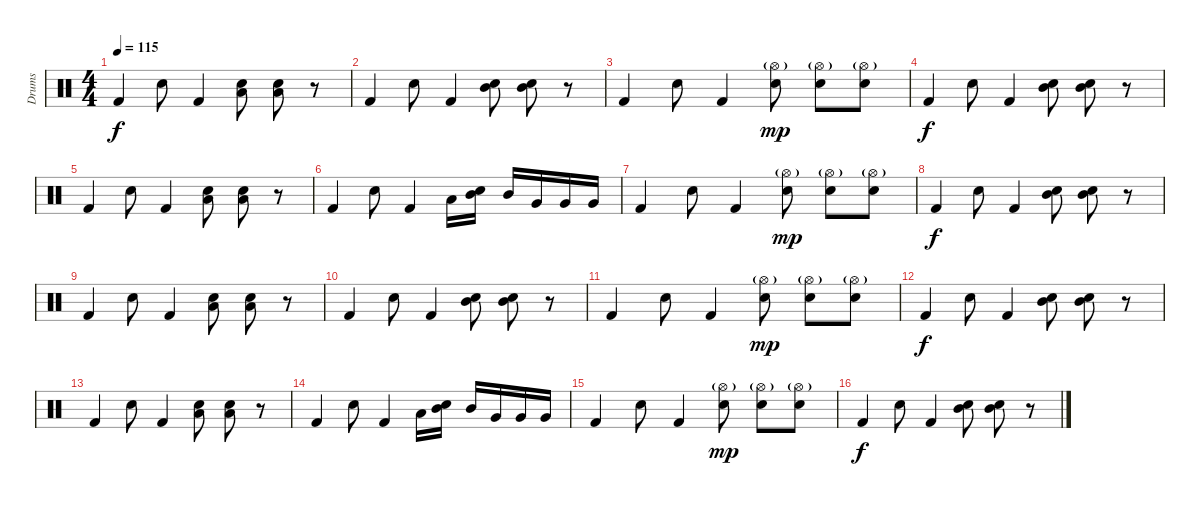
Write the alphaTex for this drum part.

\track ("Drums" "Drums") {instrument percussion}
\staff {score}
\articulation defaults
\ts (4 4)
\tempo 115
\clef neutral
\ks c "Kick (hit) 2".4{dy f} "Snare (hit) 2".8 "Kick (hit) 2".4
("Low Tom (hit)" "Snare (hit) 2").8 ("Low Tom (hit)" "Snare (hit) 2").8 r.8 |
"Kick (hit) 2".4 "Snare (hit) 2".8 "Kick (hit) 2".4 ("Mid Tom (hit)" "Snare (hit) 2").8 ("Mid Tom (hit)" "Snare (hit) 2").8 r.8 |
"Kick (hit) 2".4 "Snare (hit) 2".8 "Kick (hit) 2".4 ("Hi-Hat (open)"{g} "Snare (hit) 2").8{dy mp} ("Hi-Hat (open)"{g} "Snare (hit) 2").8 ("Hi-Hat (open)"{g} "Snare (hit) 2").8 |
"Kick (hit) 2".4{dy f} "Snare (hit) 2".8 "Kick (hit) 2".4 ("Mid Tom (hit)" "Snare (hit) 2").8 ("Mid Tom (hit)" "Snare (hit) 2").8 r.8 |
"Kick (hit) 2".4 "Snare (hit) 2".8 "Kick (hit) 2".4 ("Low Tom (hit)" "Snare (hit) 2").8 ("Low Tom (hit)" "Snare (hit) 2").8 r.8 |
"Kick (hit) 2".4 "Snare (hit) 2".8 "Kick (hit) 2".4 "Low Tom (hit)".16 ("Mid Tom (hit)" "Snare (hit) 2").16 "Mid Tom (hit)".16 "Very Low Tom (hit)".16 "Very Low Tom (hit)".16 "Very Low Tom (hit)".16 |
"Kick (hit) 2".4 "Snare (hit) 2".8 "Kick (hit) 2".4 ("Hi-Hat (open)"{g} "Snare (hit) 2").8{dy mp} ("Hi-Hat (open)"{g} "Snare (hit) 2").8 ("Hi-Hat (open)"{g} "Snare (hit) 2").8 |
"Kick (hit) 2".4{dy f} "Snare (hit) 2".8 "Kick (hit) 2".4 ("Mid Tom (hit)" "Snare (hit) 2").8 ("Mid Tom (hit)" "Snare (hit) 2").8 r.8 |
"Kick (hit) 2".4 "Snare (hit) 2".8 "Kick (hit) 2".4 ("Low Tom (hit)" "Snare (hit) 2").8 ("Low Tom (hit)" "Snare (hit) 2").8 r.8 |
"Kick (hit) 2".4 "Snare (hit) 2".8 "Kick (hit) 2".4 ("Mid Tom (hit)" "Snare (hit) 2").8 ("Mid Tom (hit)" "Snare (hit) 2").8 r.8 |
"Kick (hit) 2".4 "Snare (hit) 2".8 "Kick (hit) 2".4 ("Hi-Hat (open)"{g} "Snare (hit) 2").8{dy mp} ("Hi-Hat (open)"{g} "Snare (hit) 2").8 ("Hi-Hat (open)"{g} "Snare (hit) 2").8 |
"Kick (hit) 2".4{dy f} "Snare (hit) 2".8 "Kick (hit) 2".4 ("Mid Tom (hit)" "Snare (hit) 2").8 ("Mid Tom (hit)" "Snare (hit) 2").8 r.8 |
"Kick (hit) 2".4 "Snare (hit) 2".8 "Kick (hit) 2".4 ("Low Tom (hit)" "Snare (hit) 2").8 ("Low Tom (hit)" "Snare (hit) 2").8 r.8 |
"Kick (hit) 2".4 "Snare (hit) 2".8 "Kick (hit) 2".4 "Low Tom (hit)".16 ("Mid Tom (hit)" "Snare (hit) 2").16 "Mid Tom (hit)".16 "Very Low Tom (hit)".16 "Very Low Tom (hit)".16 "Very Low Tom (hit)".16 |
"Kick (hit) 2".4 "Snare (hit) 2".8 "Kick (hit) 2".4 ("Hi-Hat (open)"{g} "Snare (hit) 2").8{dy mp} ("Hi-Hat (open)"{g} "Snare (hit) 2").8 ("Hi-Hat (open)"{g} "Snare (hit) 2").8 |
"Kick (hit) 2".4{dy f} "Snare (hit) 2".8 "Kick (hit) 2".4 ("Mid Tom (hit)" "Snare (hit) 2").8 ("Mid Tom (hit)" "Snare (hit) 2").8 r.8
